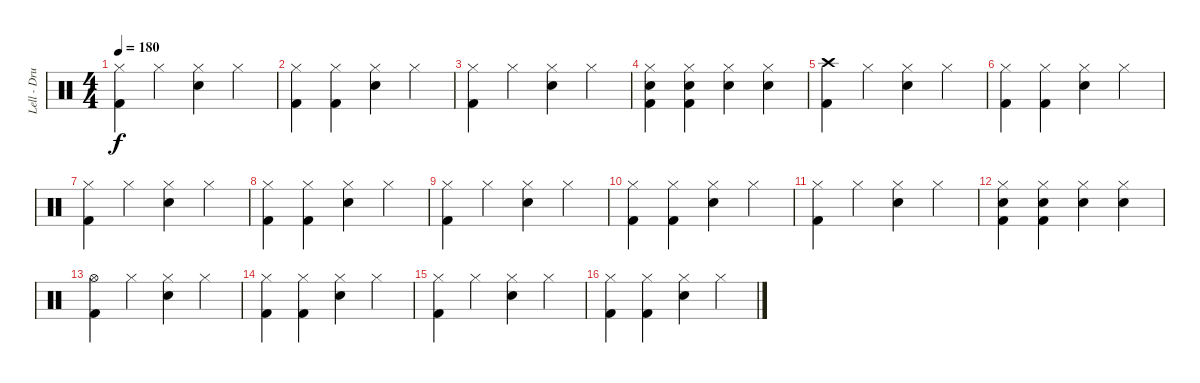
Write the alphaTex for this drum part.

\track ("Lell - Drums" "Lell - Dru") {instrument percussion}
\staff {score}
\articulation defaults
\ts (4 4)
\tempo 180
\clef neutral
\ks c
("Hi-Hat (closed)" "Kick (hit) 2").4{dy f} "Hi-Hat (closed)".4 ("Hi-Hat (closed)" "Snare (hit) 2").4 "Hi-Hat (closed)".4 |
("Hi-Hat (closed)" "Kick (hit) 2").4 ("Hi-Hat (closed)" "Kick (hit) 2").4 ("Hi-Hat (closed)" "Snare (hit) 2").4 "Hi-Hat (closed)".4 |
("Hi-Hat (closed)" "Kick (hit) 2").4 "Hi-Hat (closed)".4 ("Hi-Hat (closed)" "Snare (hit) 2").4 "Hi-Hat (closed)".4 |
("Hi-Hat (closed)" "Snare (hit) 2" "Kick (hit) 2").4 ("Hi-Hat (closed)" "Snare (hit) 2" "Kick (hit) 2").4 ("Hi-Hat (closed)" "Snare (hit) 2").4 ("Hi-Hat (closed)" "Snare (hit) 2").4 |
("Crash high (hit)" "Kick (hit) 2").4 "Hi-Hat (closed)".4 ("Hi-Hat (closed)" "Snare (hit) 2").4 "Hi-Hat (closed)".4 |
("Hi-Hat (closed)" "Kick (hit) 2").4 ("Hi-Hat (closed)" "Kick (hit) 2").4 ("Hi-Hat (closed)" "Snare (hit) 2").4 "Hi-Hat (closed)".4 |
("Hi-Hat (closed)" "Kick (hit) 2").4 "Hi-Hat (closed)".4 ("Hi-Hat (closed)" "Snare (hit) 2").4 "Hi-Hat (closed)".4 |
("Hi-Hat (closed)" "Kick (hit) 2").4 ("Hi-Hat (closed)" "Kick (hit) 2").4 ("Hi-Hat (closed)" "Snare (hit) 2").4 "Hi-Hat (closed)".4 |
("Hi-Hat (closed)" "Kick (hit) 2").4 "Hi-Hat (closed)".4 ("Hi-Hat (closed)" "Snare (hit) 2").4 "Hi-Hat (closed)".4 |
("Hi-Hat (closed)" "Kick (hit) 2").4 ("Hi-Hat (closed)" "Kick (hit) 2").4 ("Hi-Hat (closed)" "Snare (hit) 2").4 "Hi-Hat (closed)".4 |
("Hi-Hat (closed)" "Kick (hit) 2").4 "Hi-Hat (closed)".4 ("Hi-Hat (closed)" "Snare (hit) 2").4 "Hi-Hat (closed)".4 |
("Hi-Hat (closed)" "Snare (hit) 2" "Kick (hit) 2").4 ("Hi-Hat (closed)" "Snare (hit) 2" "Kick (hit) 2").4 ("Hi-Hat (closed)" "Snare (hit) 2").4 ("Hi-Hat (closed)" "Snare (hit) 2").4 |
("Hi-Hat (open)" "Kick (hit) 2").4 "Hi-Hat (closed)".4 ("Hi-Hat (closed)" "Snare (hit) 2").4 "Hi-Hat (closed)".4 |
("Hi-Hat (closed)" "Kick (hit) 2").4 ("Hi-Hat (closed)" "Kick (hit) 2").4 ("Hi-Hat (closed)" "Snare (hit) 2").4 "Hi-Hat (closed)".4 |
("Hi-Hat (closed)" "Kick (hit) 2").4 "Hi-Hat (closed)".4 ("Hi-Hat (closed)" "Snare (hit) 2").4 "Hi-Hat (closed)".4 |
("Hi-Hat (closed)" "Kick (hit) 2").4 ("Hi-Hat (closed)" "Kick (hit) 2").4 ("Hi-Hat (closed)" "Snare (hit) 2").4 "Hi-Hat (closed)".4
